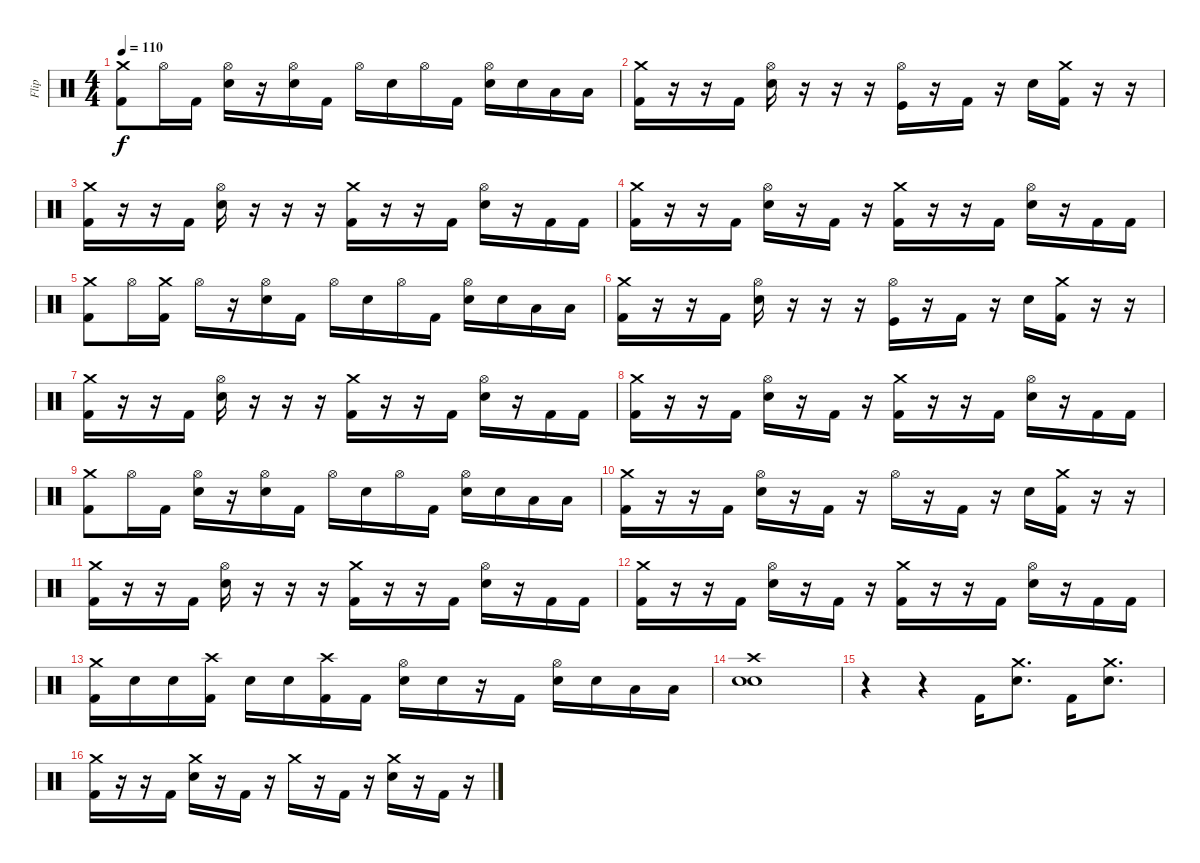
\track ("Flip" "Flip") {instrument percussion}
\staff {score}
\articulation defaults
\ts (4 4)
\tempo 110
\clef neutral
\ks c
("Crash medium (hit)" "Kick (hit) 2").8{dy f} "Hi-Hat (open)".16 "Kick (hit) 2".16 ("Hi-Hat (open)" "Snare (hit) 2").16 r.16 ("Hi-Hat (open)" "Snare (hit) 2").16 "Kick (hit) 2".16 "Hi-Hat (open)".16 "Snare (hit) 2".16 "Hi-Hat (open)".16 "Kick (hit) 2".16 ("Hi-Hat (open)" "Snare (hit) 2").16 "Snare (hit) 2".16 "Low Tom (hit)".16 "Low Tom (hit)".16 |
("Crash medium (hit)" "Kick (hit) 2").16 r.16 r.16 "Kick (hit) 2".16 ("Hi-Hat (open)" "Snare (hit) 2").16 r.16 r.16 r.16 ("Hi-Hat (open)" "Kick (hit)").16 r.16 "Kick (hit) 2".16 r.16 "Snare (hit) 2".16 ("Crash medium (hit)" "Kick (hit) 2").16 r.16 r.16 |
("Crash medium (hit)" "Kick (hit) 2").16 r.16 r.16 "Kick (hit) 2".16 ("Hi-Hat (open)" "Snare (hit) 2").16 r.16 r.16 r.16 ("Crash medium (hit)" "Kick (hit) 2").16 r.16 r.16 "Kick (hit) 2".16 ("Hi-Hat (open)" "Snare (hit) 2").16 r.16 "Kick (hit) 2".16 "Kick (hit) 2".16 |
("Crash medium (hit)" "Kick (hit) 2").16 r.16 r.16 "Kick (hit) 2".16 ("Hi-Hat (open)" "Snare (hit) 2").16 r.16 "Kick (hit) 2".16 r.16 ("Crash medium (hit)" "Kick (hit) 2").16 r.16 r.16 "Kick (hit) 2".16 ("Hi-Hat (open)" "Snare (hit) 2").16 r.16 "Kick (hit) 2".16 "Kick (hit) 2".16 |
("Crash medium (hit)" "Kick (hit) 2").8 "Hi-Hat (open)".16 ("Crash medium (hit)" "Kick (hit) 2").16 "Hi-Hat (open)".16 r.16 ("Hi-Hat (open)" "Snare (hit) 2").16 "Kick (hit) 2".16 "Hi-Hat (open)".16 "Snare (hit) 2".16 "Hi-Hat (open)".16 "Kick (hit) 2".16 ("Hi-Hat (open)" "Snare (hit) 2").16 "Snare (hit) 2".16 "Low Tom (hit)".16 "Low Tom (hit)".16 |
("Crash medium (hit)" "Kick (hit) 2").16 r.16 r.16 "Kick (hit) 2".16 ("Hi-Hat (open)" "Snare (hit) 2").16 r.16 r.16 r.16 ("Hi-Hat (open)" "Kick (hit)").16 r.16 "Kick (hit) 2".16 r.16 "Snare (hit) 2".16 ("Crash medium (hit)" "Kick (hit) 2").16 r.16 r.16 |
("Crash medium (hit)" "Kick (hit) 2").16 r.16 r.16 "Kick (hit) 2".16 ("Hi-Hat (open)" "Snare (hit) 2").16 r.16 r.16 r.16 ("Crash medium (hit)" "Kick (hit) 2").16 r.16 r.16 "Kick (hit) 2".16 ("Hi-Hat (open)" "Snare (hit) 2").16 r.16 "Kick (hit) 2".16 "Kick (hit) 2".16 |
("Crash medium (hit)" "Kick (hit) 2").16 r.16 r.16 "Kick (hit) 2".16 ("Hi-Hat (open)" "Snare (hit) 2").16 r.16 "Kick (hit) 2".16 r.16 ("Crash medium (hit)" "Kick (hit) 2").16 r.16 r.16 "Kick (hit) 2".16 ("Hi-Hat (open)" "Snare (hit) 2").16 r.16 "Kick (hit) 2".16 "Kick (hit) 2".16 |
("Crash medium (hit)" "Kick (hit) 2").8 "Hi-Hat (open)".16 "Kick (hit) 2".16 ("Hi-Hat (open)" "Snare (hit) 2").16 r.16 ("Hi-Hat (open)" "Snare (hit) 2").16 "Kick (hit) 2".16 "Hi-Hat (open)".16 "Snare (hit) 2".16 "Hi-Hat (open)".16 "Kick (hit) 2".16 ("Hi-Hat (open)" "Snare (hit) 2").16 "Snare (hit) 2".16 "Low Tom (hit)".16 "Low Tom (hit)".16 |
("Crash medium (hit)" "Kick (hit) 2").16 r.16 r.16 "Kick (hit) 2".16 ("Hi-Hat (open)" "Snare (hit) 2").16 r.16 "Kick (hit) 2".16 r.16 "Hi-Hat (open)".16 r.16 "Kick (hit) 2".16 r.16 "Snare (hit) 2".16 ("Crash medium (hit)" "Kick (hit) 2").16 r.16 r.16 |
("Crash medium (hit)" "Kick (hit) 2").16 r.16 r.16 "Kick (hit) 2".16 ("Hi-Hat (open)" "Snare (hit) 2").16 r.16 r.16 r.16 ("Crash medium (hit)" "Kick (hit) 2").16 r.16 r.16 "Kick (hit) 2".16 ("Hi-Hat (open)" "Snare (hit) 2").16 r.16 "Kick (hit) 2".16 "Kick (hit) 2".16 |
("Crash medium (hit)" "Kick (hit) 2").16 r.16 r.16 "Kick (hit) 2".16 ("Hi-Hat (open)" "Snare (hit) 2").16 r.16 "Kick (hit) 2".16 r.16 ("Crash medium (hit)" "Kick (hit) 2").16 r.16 r.16 "Kick (hit) 2".16 ("Hi-Hat (open)" "Snare (hit) 2").16 r.16 "Kick (hit) 2".16 "Kick (hit) 2".16 |
("Crash medium (hit)" "Kick (hit) 2").16 "Snare (hit) 2".16 "Snare (hit) 2".16 ("Crash high (hit)" "Kick (hit) 2").16 "Snare (hit) 2".16 "Snare (hit) 2".16 ("Crash high (hit)" "Kick (hit) 2").16 "Kick (hit) 2".16 ("Hi-Hat (open)" "Snare (hit) 2").16 "Snare (hit) 2".16 r.16 "Kick (hit) 2".16 ("Hi-Hat (open)" "Snare (hit) 2").16 "Snare (hit) 2".16 "Low Tom (hit)".16 "Low Tom (hit)".16 |
("Crash high (hit)" "Snare (hit) 2" "Snare (hit) 2").1 |
r.4 r.4 "Kick (hit) 2".16 ("Crash medium (hit)" "Snare (hit) 2").8{d} "Kick (hit) 2".16 ("Crash medium (hit)" "Snare (hit) 2").8{d} |
("Crash medium (hit)" "Kick (hit) 2").16 r.16 r.16 "Kick (hit) 2".16 ("Crash medium (hit)" "Snare (hit) 2").16 r.16 "Kick (hit) 2".16 r.16 "Crash medium (hit)".16 r.16 "Kick (hit) 2".16 r.16 ("Crash medium (hit)" "Snare (hit) 2").16 r.16 "Kick (hit) 2".16 r.16
